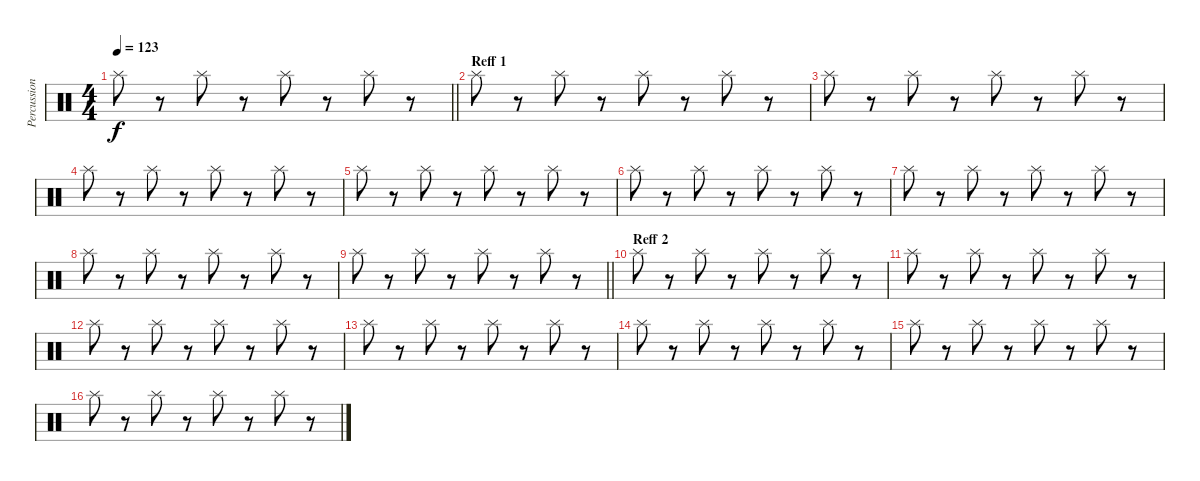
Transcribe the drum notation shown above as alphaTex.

\track ("Percussion 2" "Percussion") {instrument percussion}
\staff {score}
\articulation defaults
\ts (4 4)
\tempo 123
\clef neutral
\barLineRight lightlight
\ks c "Splash (hit)".8{dy f}
r.8 "Splash (hit)".8 r.8 "Splash (hit)".8 r.8 "Splash (hit)".8 r.8 |
\section ("" "Reff 1")
"Splash (hit)".8 r.8 "Splash (hit)".8 r.8 "Splash (hit)".8 r.8 "Splash (hit)".8 r.8 |
"Splash (hit)".8 r.8 "Splash (hit)".8 r.8 "Splash (hit)".8 r.8 "Splash (hit)".8 r.8 |
"Splash (hit)".8 r.8 "Splash (hit)".8 r.8 "Splash (hit)".8 r.8 "Splash (hit)".8 r.8 |
"Splash (hit)".8 r.8 "Splash (hit)".8 r.8 "Splash (hit)".8 r.8 "Splash (hit)".8 r.8 |
"Splash (hit)".8 r.8 "Splash (hit)".8 r.8 "Splash (hit)".8 r.8 "Splash (hit)".8 r.8 |
"Splash (hit)".8 r.8 "Splash (hit)".8 r.8 "Splash (hit)".8 r.8 "Splash (hit)".8 r.8 |
"Splash (hit)".8 r.8 "Splash (hit)".8 r.8 "Splash (hit)".8 r.8 "Splash (hit)".8 r.8 |
\barLineRight lightlight "Splash (hit)".8
r.8 "Splash (hit)".8 r.8 "Splash (hit)".8 r.8 "Splash (hit)".8 r.8 |
\section ("" "Reff 2")
"Splash (hit)".8 r.8 "Splash (hit)".8 r.8 "Splash (hit)".8 r.8 "Splash (hit)".8 r.8 |
"Splash (hit)".8 r.8 "Splash (hit)".8 r.8 "Splash (hit)".8 r.8 "Splash (hit)".8 r.8 |
"Splash (hit)".8 r.8 "Splash (hit)".8 r.8 "Splash (hit)".8 r.8 "Splash (hit)".8 r.8 |
"Splash (hit)".8 r.8 "Splash (hit)".8 r.8 "Splash (hit)".8 r.8 "Splash (hit)".8 r.8 |
"Splash (hit)".8 r.8 "Splash (hit)".8 r.8 "Splash (hit)".8 r.8 "Splash (hit)".8 r.8 |
"Splash (hit)".8 r.8 "Splash (hit)".8 r.8 "Splash (hit)".8 r.8 "Splash (hit)".8 r.8 |
"Splash (hit)".8 r.8 "Splash (hit)".8 r.8 "Splash (hit)".8 r.8 "Splash (hit)".8 r.8
